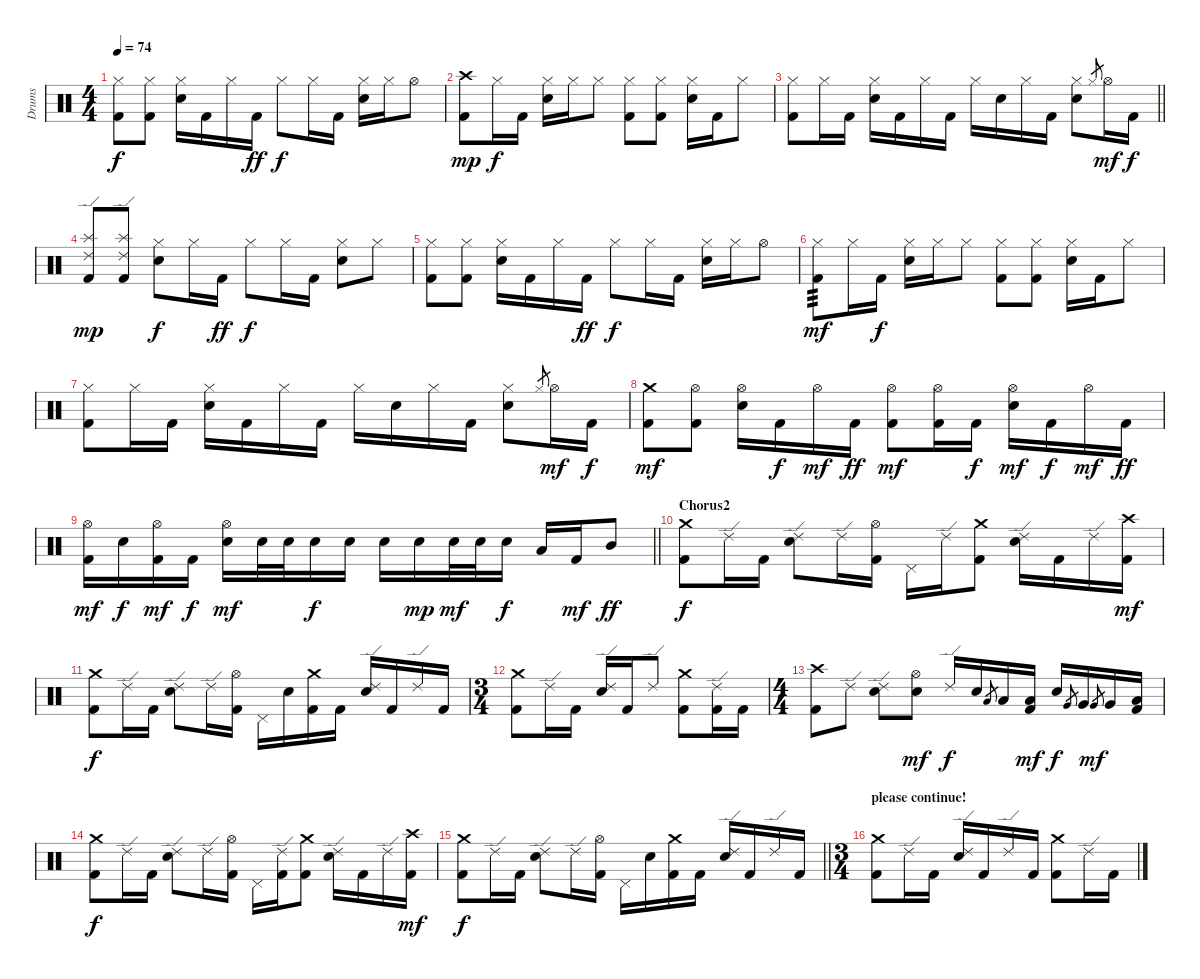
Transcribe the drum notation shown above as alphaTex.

\track ("Drums" "Drums") {instrument percussion}
\staff {score}
\articulation defaults
\ts (4 4)
\tempo 74
\clef neutral
\ks c
("Hi-Hat (closed)" "Kick (hit) 2").8{dy f} ("Hi-Hat (closed)" "Kick (hit) 2").8 ("Hi-Hat (closed)" "Snare (hit) 2").16 "Kick (hit) 2".16 "Hi-Hat (closed)".16 "Kick (hit) 2".16{dy ff} "Hi-Hat (closed)".8{dy f} "Hi-Hat (closed)".16 "Kick (hit) 2".16 ("Hi-Hat (closed)" "Snare (hit) 2").16 "Hi-Hat (closed)".16 "Hi-Hat (open)".8 |
("Crash high (hit)" "Kick (hit) 2").8{dy mp} "Hi-Hat (closed)".16{dy f} "Kick (hit) 2".16 ("Hi-Hat (closed)" "Snare (hit) 2").16 "Hi-Hat (closed)".16 "Hi-Hat (closed)".8 ("Hi-Hat (closed)" "Kick (hit) 2").8 ("Hi-Hat (closed)" "Kick (hit) 2").8 ("Hi-Hat (closed)" "Snare (hit) 2").16 "Kick (hit) 2".16 "Hi-Hat (closed)".8 |
\barLineRight lightlight
("Hi-Hat (closed)" "Kick (hit) 2").8 "Hi-Hat (closed)".16 "Kick (hit) 2".16 ("Hi-Hat (closed)" "Snare (hit) 2").16 "Kick (hit) 2".16 "Hi-Hat (closed)".16 "Kick (hit) 2".16 "Hi-Hat (closed)".16 "Snare (hit) 2".16 "Hi-Hat (closed)".16 "Kick (hit) 2".16 ("Hi-Hat (closed)" "Snare (hit) 2").8 "Hi-Hat (closed)".8{gr} "Hi-Hat (open)".16{dy mf} "Kick (hit) 2".16{dy f} |
("Splash (hit)" "Ride (edge) 2" "Kick (hit) 2").8{dy mp} ("Splash (hit)" "Ride (edge) 2" "Kick (hit) 2").8 ("Hi-Hat (closed)" "Snare (hit) 2").8{dy f} "Hi-Hat (closed)".16 "Kick (hit) 2".16{dy ff} "Hi-Hat (closed)".8{dy f} "Hi-Hat (closed)".16 "Kick (hit) 2".16 ("Hi-Hat (closed)" "Snare (hit) 2").8 "Hi-Hat (closed)".8 |
("Hi-Hat (closed)" "Kick (hit) 2").8 ("Hi-Hat (closed)" "Kick (hit) 2").8 ("Hi-Hat (closed)" "Snare (hit) 2").16 "Kick (hit) 2".16 "Hi-Hat (closed)".16 "Kick (hit) 2".16{dy ff} "Hi-Hat (closed)".8{dy f} "Hi-Hat (closed)".16 "Kick (hit) 2".16 ("Hi-Hat (closed)" "Snare (hit) 2").16 "Hi-Hat (closed)".16 "Hi-Hat (open)".8 |
("Hi-Hat (closed)" "Kick (hit) 2").8{tp 3 dy mf} "Hi-Hat (closed)".16 "Kick (hit) 2".16{dy f} ("Hi-Hat (closed)" "Snare (hit) 2").16 "Hi-Hat (closed)".16 "Hi-Hat (closed)".8 ("Hi-Hat (closed)" "Kick (hit) 2").8 ("Hi-Hat (closed)" "Kick (hit) 2").8 ("Hi-Hat (closed)" "Snare (hit) 2").16 "Kick (hit) 2".16 "Hi-Hat (closed)".8 |
("Hi-Hat (closed)" "Kick (hit) 2").8 "Hi-Hat (closed)".16 "Kick (hit) 2".16 ("Hi-Hat (closed)" "Snare (hit) 2").16 "Kick (hit) 2".16 "Hi-Hat (closed)".16 "Kick (hit) 2".16 "Hi-Hat (closed)".16 "Snare (hit) 2".16 "Hi-Hat (closed)".16 "Kick (hit) 2".16 ("Hi-Hat (closed)" "Snare (hit) 2").8 "Hi-Hat (closed)".8{gr} "Hi-Hat (open)".16{dy mf} "Kick (hit) 2".16{dy f} |
("Crash medium (hit)" "Kick (hit) 2").8{dy mf} ("Hi-Hat (open)" "Kick (hit) 2").8 ("Hi-Hat (open)" "Snare (hit) 2").16 "Kick (hit) 2".16{dy f} "Hi-Hat (open)".16{dy mf} "Kick (hit) 2".16{dy ff} ("Hi-Hat (open)" "Kick (hit) 2").8{dy mf} ("Hi-Hat (open)" "Kick (hit) 2").16 "Kick (hit) 2".16{dy f} ("Hi-Hat (open)" "Snare (hit) 2").16{dy mf} "Kick (hit) 2".16{dy f} "Hi-Hat (open)".16{dy mf} "Kick (hit) 2".16{dy ff} |
\barLineRight lightlight
("Hi-Hat (open)" "Kick (hit) 2").16{dy mf} "Snare (hit) 2".16{dy f} ("Hi-Hat (open)" "Kick (hit) 2").16{dy mf} "Kick (hit) 2".16{dy f} ("Hi-Hat (open)" "Snare (hit) 2").16{dy mf} "Snare (hit) 2".32 "Snare (hit) 2".32 "Snare (hit) 2".16{dy f} "Snare (hit) 2".16 "Snare (hit) 2".16 "Snare (hit) 2".16{dy mp} "Snare (hit) 2".32{dy mf} "Snare (hit) 2".32 "Snare (hit) 2".16{dy f} "Low Tom (hit)".16 "Kick (hit) 2".16{dy mf} "Mid Tom (hit)".8{dy ff} |
\section ("" "Chorus2")
("Crash medium (hit)" "Kick (hit) 2").8{dy f} "Ride (edge) 2".16 "Kick (hit) 2".16 ("Ride (edge) 2" "Snare (hit) 2").8 "Ride (edge) 2".16 ("Hi-Hat (open)" "Kick (hit) 2").16 "Pedal Hi-Hat (hit)".16 "Ride (edge) 2".16 ("Crash medium (hit)" "Kick (hit) 2").8 ("Ride (edge) 2" "Snare (hit) 2").16 "Kick (hit) 2".16 "Ride (edge) 2".16 ("Crash high (hit)" "Kick (hit) 2").16{dy mf} |
("Crash medium (hit)" "Kick (hit) 2").8{dy f} "Ride (edge) 2".16 "Kick (hit) 2".16 ("Ride (edge) 2" "Snare (hit) 2").8 "Ride (edge) 2".16 ("Hi-Hat (open)" "Kick (hit) 2").16 "Pedal Hi-Hat (hit)".16 "Snare (hit) 2".16 ("Crash medium (hit)" "Kick (hit) 2").16 "Kick (hit) 2".16 ("Ride (edge) 2" "Snare (hit) 2").16 "Kick (hit) 2".16 "Ride (edge) 2".16 "Kick (hit) 2".16 |
\ts (3 4)
("Crash medium (hit)" "Kick (hit) 2").8 "Ride (edge) 2".16 "Kick (hit) 2".16 ("Ride (edge) 2" "Snare (hit) 2").16 "Kick (hit) 2".16 "Ride (edge) 2".8 ("Crash medium (hit)" "Kick (hit) 2").8 ("Ride (edge) 2" "Kick (hit) 2").16 "Kick (hit) 2".16 |
\ts (4 4)
("Crash high (hit)" "Kick (hit) 2").8 "Ride (edge) 2".8 ("Ride (edge) 2" "Snare (hit) 2").8 ("Hi-Hat (open)" "Snare (hit) 2").8{dy mf} "Ride (edge) 2".16{dy f} "Snare (hit) 2".16 "Low Tom (hit)".8{gr} "Low Tom (hit)".16 ("Low Tom (hit)" "Kick (hit) 2").16{dy mf} "Snare (hit) 2".16{dy f} "Very Low Tom (hit)".8{gr} "Very Low Tom (hit)".16 "Very Low Tom (hit)".8{gr dy mf} "Very Low Tom (hit)".16 ("Low Floor Tom (hit)" "Kick (hit) 2").16 |
("Crash medium (hit)" "Kick (hit) 2").8{dy f} "Ride (edge) 2".16 "Kick (hit) 2".16 ("Ride (edge) 2" "Snare (hit) 2").8 "Ride (edge) 2".16 ("Hi-Hat (open)" "Kick (hit) 2").16 "Pedal Hi-Hat (hit)".16 ("Ride (edge) 2" "Kick (hit) 2").16 ("Crash medium (hit)" "Kick (hit) 2").8 ("Ride (edge) 2" "Snare (hit) 2").16 "Kick (hit) 2".16 "Ride (edge) 2".16 ("Crash high (hit)" "Kick (hit) 2").16{dy mf} |
\barLineRight lightlight
("Crash medium (hit)" "Kick (hit) 2").8{dy f} "Ride (edge) 2".16 "Kick (hit) 2".16 ("Ride (edge) 2" "Snare (hit) 2").8 "Ride (edge) 2".16 ("Hi-Hat (open)" "Kick (hit) 2").16 "Pedal Hi-Hat (hit)".16 "Snare (hit) 2".16 ("Crash medium (hit)" "Kick (hit) 2").16 "Kick (hit) 2".16 ("Ride (edge) 2" "Snare (hit) 2").16 "Kick (hit) 2".16 "Ride (edge) 2".16 "Kick (hit) 2".16 |
\ts (3 4)
\section ("" "please continue!")
("Crash medium (hit)" "Kick (hit) 2").8 "Ride (edge) 2".16 "Kick (hit) 2".16 ("Ride (edge) 2" "Snare (hit) 2").16 "Kick (hit) 2".16 "Ride (edge) 2".16 "Kick (hit) 2".16 ("Crash medium (hit)" "Kick (hit) 2").8 "Ride (edge) 2".16 "Kick (hit) 2".16
